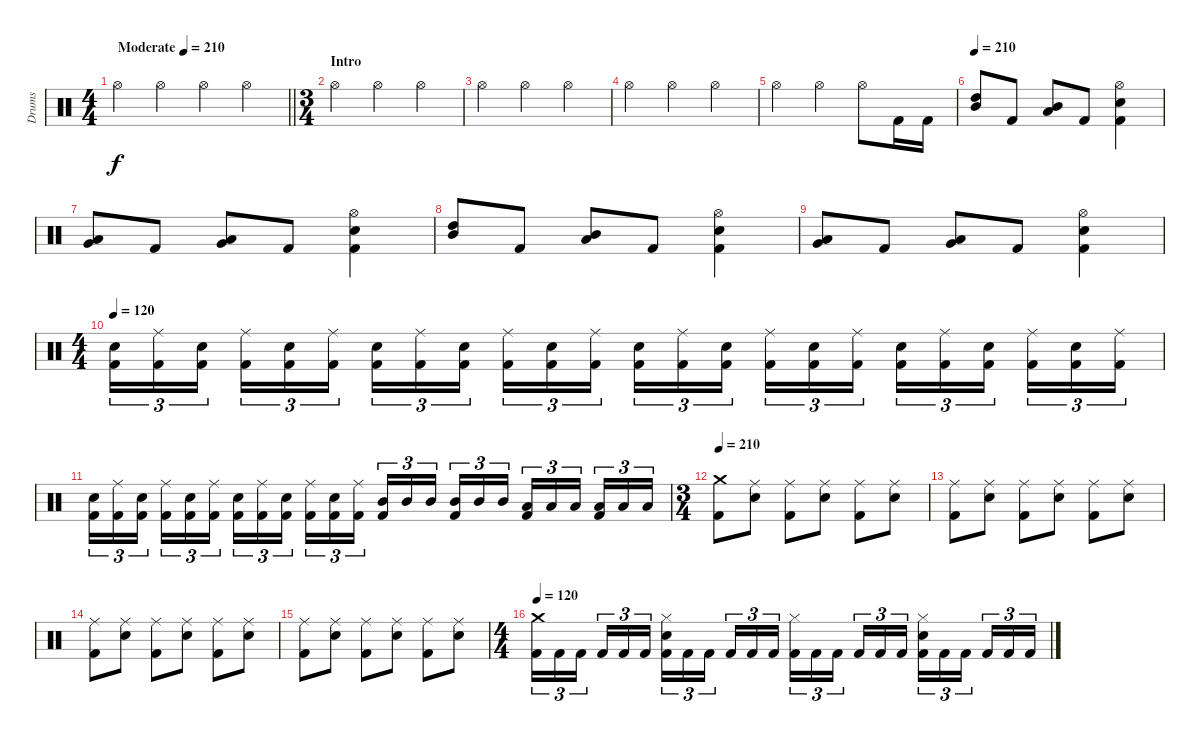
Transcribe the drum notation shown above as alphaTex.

\track ("Drums" "Drums") {instrument percussion}
\staff {score}
\articulation defaults
\ts (4 4)
\tempo (210 "Moderate")
\clef neutral
\barLineRight lightlight
\ks c "Hi-Hat (open)".4{dy f} "Hi-Hat (open)".4 "Hi-Hat (open)".4 "Hi-Hat (open)".4
|
\ts (3 4)
\section ("" "Intro")
"Hi-Hat (open)".4 "Hi-Hat (open)".4 "Hi-Hat (open)".4 |
"Hi-Hat (open)".4 "Hi-Hat (open)".4 "Hi-Hat (open)".4 |
"Hi-Hat (open)".4 "Hi-Hat (open)".4 "Hi-Hat (open)".4 |
"Hi-Hat (open)".4 "Hi-Hat (open)".4 "Hi-Hat (open)".8 "Kick (hit) 2".16 "Kick (hit) 2".16 |
\tempo 210
("High Tom (hit)" "Mid Tom (hit)").8 "Kick (hit) 2".8 ("Mid Tom (hit)" "Low Tom (hit)").8 "Kick (hit) 2".8 ("Kick (hit) 2" "Snare (hit) 2" "Hi-Hat (open)").4 |
("Low Tom (hit)" "Very Low Tom (hit)").8 "Kick (hit) 2".8 ("Low Tom (hit)" "Very Low Tom (hit)").8 "Kick (hit) 2".8 ("Kick (hit) 2" "Snare (hit) 2" "Hi-Hat (open)").4 |
("High Tom (hit)" "Mid Tom (hit)").8 "Kick (hit) 2".8 ("Mid Tom (hit)" "Low Tom (hit)").8 "Kick (hit) 2".8 ("Kick (hit) 2" "Snare (hit) 2" "Hi-Hat (open)").4 |
("Low Tom (hit)" "Very Low Tom (hit)").8 "Kick (hit) 2".8 ("Low Tom (hit)" "Very Low Tom (hit)").8 "Kick (hit) 2".8 ("Kick (hit) 2" "Snare (hit) 2" "Hi-Hat (open)").4 |
\ts (4 4)
\tempo 120
("Kick (hit) 2" "Snare (hit) 2").16{tu (3 2)} ("Kick (hit) 2" "Ride (middle)").16{tu (3 2)} ("Kick (hit) 2" "Snare (hit) 2").16{tu (3 2) beam splitsecondary} ("Kick (hit) 2" "Ride (middle)").16{tu (3 2)} ("Kick (hit) 2" "Snare (hit) 2").16{tu (3 2)} ("Kick (hit) 2" "Ride (middle)").16{tu (3 2)} ("Kick (hit) 2" "Snare (hit) 2").16{tu (3 2)} ("Kick (hit) 2" "Ride (middle)").16{tu (3 2)} ("Kick (hit) 2" "Snare (hit) 2").16{tu (3 2) beam splitsecondary} ("Kick (hit) 2" "Ride (middle)").16{tu (3 2)} ("Kick (hit) 2" "Snare (hit) 2").16{tu (3 2)} ("Kick (hit) 2" "Ride (middle)").16{tu (3 2)} ("Kick (hit) 2" "Snare (hit) 2").16{tu (3 2)} ("Kick (hit) 2" "Ride (middle)").16{tu (3 2)} ("Kick (hit) 2" "Snare (hit) 2").16{tu (3 2) beam splitsecondary} ("Kick (hit) 2" "Ride (middle)").16{tu (3 2)} ("Kick (hit) 2" "Snare (hit) 2").16{tu (3 2)} ("Kick (hit) 2" "Ride (middle)").16{tu (3 2)} ("Kick (hit) 2" "Snare (hit) 2").16{tu (3 2)} ("Kick (hit) 2" "Ride (middle)").16{tu (3 2)} ("Kick (hit) 2" "Snare (hit) 2").16{tu (3 2) beam splitsecondary} ("Kick (hit) 2" "Ride (middle)").16{tu (3 2)} ("Kick (hit) 2" "Snare (hit) 2").16{tu (3 2)} ("Kick (hit) 2" "Ride (middle)").16{tu (3 2)} |
("Kick (hit) 2" "Snare (hit) 2").16{tu (3 2)} ("Kick (hit) 2" "Ride (middle)").16{tu (3 2)} ("Kick (hit) 2" "Snare (hit) 2").16{tu (3 2) beam splitsecondary} ("Kick (hit) 2" "Ride (middle)").16{tu (3 2)} ("Kick (hit) 2" "Snare (hit) 2").16{tu (3 2)} ("Kick (hit) 2" "Ride (middle)").16{tu (3 2)} ("Kick (hit) 2" "Snare (hit) 2").16{tu (3 2)} ("Kick (hit) 2" "Ride (middle)").16{tu (3 2)} ("Kick (hit) 2" "Snare (hit) 2").16{tu (3 2) beam splitsecondary} ("Kick (hit) 2" "Ride (middle)").16{tu (3 2)} ("Kick (hit) 2" "Snare (hit) 2").16{tu (3 2)} ("Kick (hit) 2" "Ride (middle)").16{tu (3 2)} ("Kick (hit) 2" "Mid Tom (hit)").16{tu (3 2)} "Mid Tom (hit)".16{tu (3 2)} "Mid Tom (hit)".16{tu (3 2) beam splitsecondary} ("Kick (hit) 2" "Mid Tom (hit)").16{tu (3 2)} "Mid Tom (hit)".16{tu (3 2)} "Mid Tom (hit)".16{tu (3 2)} ("Kick (hit) 2" "Low Tom (hit)").16{tu (3 2)} "Low Tom (hit)".16{tu (3 2)} "Low Tom (hit)".16{tu (3 2) beam splitsecondary} ("Kick (hit) 2" "Low Tom (hit)").16{tu (3 2)} "Low Tom (hit)".16{tu (3 2)} "Low Tom (hit)".16{tu (3 2)} |
\ts (3 4)
\tempo 210
("Kick (hit) 2" "Crash medium (hit)").8 ("Snare (hit) 2" "Ride (middle)").8 ("Kick (hit) 2" "Ride (middle)").8 ("Snare (hit) 2" "Ride (middle)").8 ("Kick (hit) 2" "Ride (middle)").8 ("Snare (hit) 2" "Ride (middle)").8 |
("Kick (hit) 2" "Ride (middle)").8 ("Snare (hit) 2" "Ride (middle)").8 ("Kick (hit) 2" "Ride (middle)").8 ("Snare (hit) 2" "Ride (middle)").8 ("Kick (hit) 2" "Ride (middle)").8 ("Snare (hit) 2" "Ride (middle)").8 |
("Kick (hit) 2" "Ride (middle)").8 ("Snare (hit) 2" "Ride (middle)").8 ("Kick (hit) 2" "Ride (middle)").8 ("Snare (hit) 2" "Ride (middle)").8 ("Kick (hit) 2" "Ride (middle)").8 ("Snare (hit) 2" "Ride (middle)").8 |
("Kick (hit) 2" "Ride (middle)").8 ("Snare (hit) 2" "Ride (middle)").8 ("Kick (hit) 2" "Ride (middle)").8 ("Snare (hit) 2" "Ride (middle)").8 ("Kick (hit) 2" "Ride (middle)").8 ("Snare (hit) 2" "Ride (middle)").8 |
\ts (4 4)
\tempo 120
("Kick (hit) 2" "Crash medium (hit)").16{tu (3 2)} "Kick (hit) 2".16{tu (3 2)} "Kick (hit) 2".16{tu (3 2) beam splitsecondary} "Kick (hit) 2".16{tu (3 2)} "Kick (hit) 2".16{tu (3 2)} "Kick (hit) 2".16{tu (3 2)} ("Kick (hit) 2" "Snare (hit) 2" "Hi-Hat (closed)").16{tu (3 2)} "Kick (hit) 2".16{tu (3 2)} "Kick (hit) 2".16{tu (3 2) beam splitsecondary} "Kick (hit) 2".16{tu (3 2)} "Kick (hit) 2".16{tu (3 2)} "Kick (hit) 2".16{tu (3 2)} ("Kick (hit) 2" "Hi-Hat (closed)").16{tu (3 2)} "Kick (hit) 2".16{tu (3 2)} "Kick (hit) 2".16{tu (3 2) beam splitsecondary} "Kick (hit) 2".16{tu (3 2)} "Kick (hit) 2".16{tu (3 2)} "Kick (hit) 2".16{tu (3 2)} ("Kick (hit) 2" "Snare (hit) 2" "Hi-Hat (closed)").16{tu (3 2)} "Kick (hit) 2".16{tu (3 2)} "Kick (hit) 2".16{tu (3 2) beam splitsecondary} "Kick (hit) 2".16{tu (3 2)} "Kick (hit) 2".16{tu (3 2)} "Kick (hit) 2".16{tu (3 2)}
